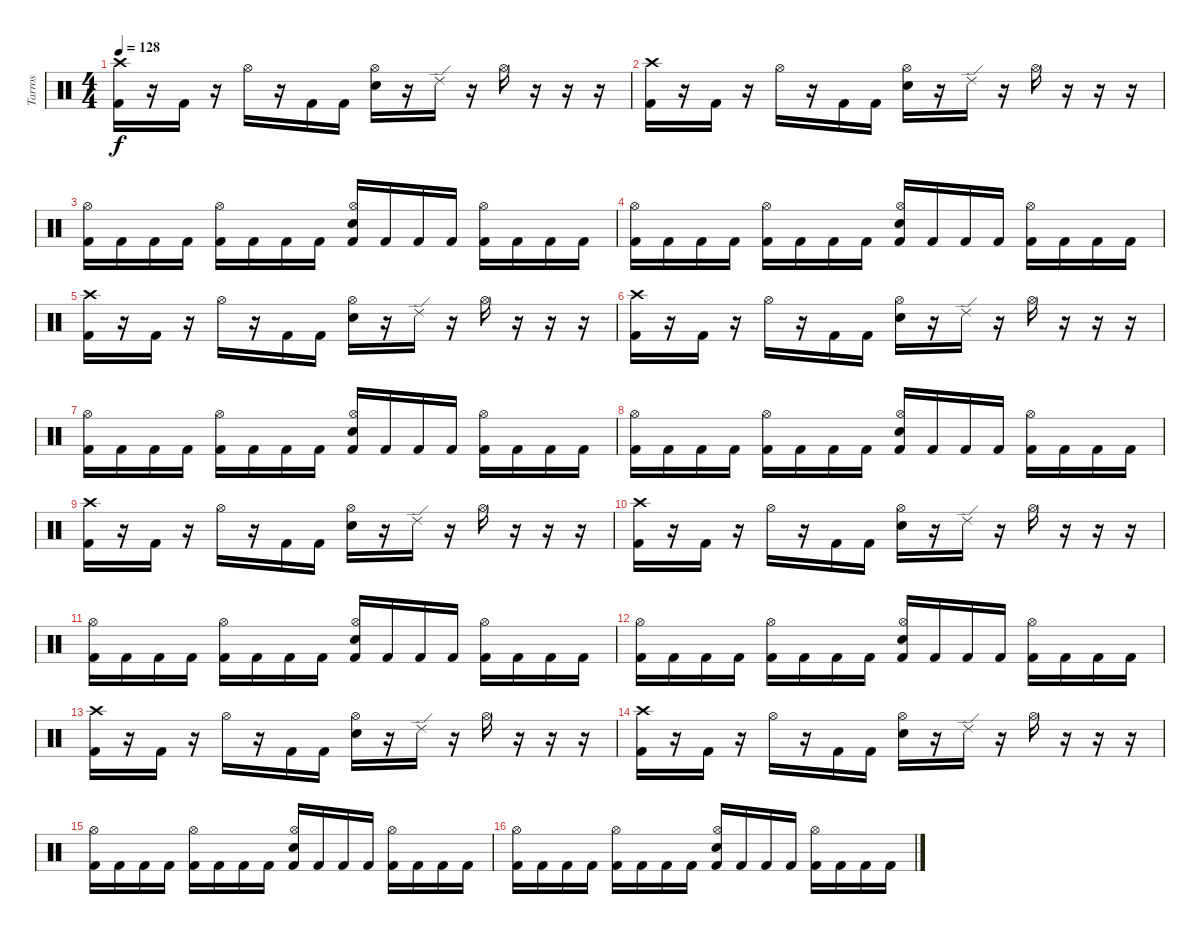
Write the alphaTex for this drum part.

\track ("Tarros" "Tarros") {instrument percussion}
\staff {score}
\articulation defaults
\ts (4 4)
\tempo 128
\clef neutral
\ks c
("Crash high (hit)" "Kick (hit) 2").16{dy f} r.16 "Kick (hit) 2".16 r.16 "Hi-Hat (open)".16 r.16 "Kick (hit) 2".16 "Kick (hit) 2".16 ("Hi-Hat (open)" "Electric Snare (hit)").16 r.16 "Ride (edge) 2".16 r.16 "Hi-Hat (open)".16 r.16 r.16 r.16 |
("Crash high (hit)" "Kick (hit) 2").16 r.16 "Kick (hit) 2".16 r.16 "Hi-Hat (open)".16 r.16 "Kick (hit) 2".16 "Kick (hit) 2".16 ("Hi-Hat (open)" "Electric Snare (hit)").16 r.16 "Ride (edge) 2".16 r.16 "Hi-Hat (open)".16 r.16 r.16 r.16 |
("Hi-Hat (open)" "Kick (hit) 2").16 "Kick (hit) 2".16 "Kick (hit) 2".16 "Kick (hit) 2".16 ("Hi-Hat (open)" "Kick (hit) 2").16 "Kick (hit) 2".16 "Kick (hit) 2".16 "Kick (hit) 2".16 ("Hi-Hat (open)" "Electric Snare (hit)" "Kick (hit) 2").16 "Kick (hit) 2".16 "Kick (hit) 2".16 "Kick (hit) 2".16 ("Hi-Hat (open)" "Kick (hit) 2").16 "Kick (hit) 2".16 "Kick (hit) 2".16 "Kick (hit) 2".16 |
("Hi-Hat (open)" "Kick (hit) 2").16 "Kick (hit) 2".16 "Kick (hit) 2".16 "Kick (hit) 2".16 ("Hi-Hat (open)" "Kick (hit) 2").16 "Kick (hit) 2".16 "Kick (hit) 2".16 "Kick (hit) 2".16 ("Hi-Hat (open)" "Electric Snare (hit)" "Kick (hit) 2").16 "Kick (hit) 2".16 "Kick (hit) 2".16 "Kick (hit) 2".16 ("Hi-Hat (open)" "Kick (hit) 2").16 "Kick (hit) 2".16 "Kick (hit) 2".16 "Kick (hit) 2".16 |
("Crash high (hit)" "Kick (hit) 2").16 r.16 "Kick (hit) 2".16 r.16 "Hi-Hat (open)".16 r.16 "Kick (hit) 2".16 "Kick (hit) 2".16 ("Hi-Hat (open)" "Electric Snare (hit)").16 r.16 "Ride (edge) 2".16 r.16 "Hi-Hat (open)".16 r.16 r.16 r.16 |
("Crash high (hit)" "Kick (hit) 2").16 r.16 "Kick (hit) 2".16 r.16 "Hi-Hat (open)".16 r.16 "Kick (hit) 2".16 "Kick (hit) 2".16 ("Hi-Hat (open)" "Electric Snare (hit)").16 r.16 "Ride (edge) 2".16 r.16 "Hi-Hat (open)".16 r.16 r.16 r.16 |
("Hi-Hat (open)" "Kick (hit) 2").16 "Kick (hit) 2".16 "Kick (hit) 2".16 "Kick (hit) 2".16 ("Hi-Hat (open)" "Kick (hit) 2").16 "Kick (hit) 2".16 "Kick (hit) 2".16 "Kick (hit) 2".16 ("Hi-Hat (open)" "Electric Snare (hit)" "Kick (hit) 2").16 "Kick (hit) 2".16 "Kick (hit) 2".16 "Kick (hit) 2".16 ("Hi-Hat (open)" "Kick (hit) 2").16 "Kick (hit) 2".16 "Kick (hit) 2".16 "Kick (hit) 2".16 |
("Hi-Hat (open)" "Kick (hit) 2").16 "Kick (hit) 2".16 "Kick (hit) 2".16 "Kick (hit) 2".16 ("Hi-Hat (open)" "Kick (hit) 2").16 "Kick (hit) 2".16 "Kick (hit) 2".16 "Kick (hit) 2".16 ("Hi-Hat (open)" "Electric Snare (hit)" "Kick (hit) 2").16 "Kick (hit) 2".16 "Kick (hit) 2".16 "Kick (hit) 2".16 ("Hi-Hat (open)" "Kick (hit) 2").16 "Kick (hit) 2".16 "Kick (hit) 2".16 "Kick (hit) 2".16 |
("Crash high (hit)" "Kick (hit) 2").16 r.16 "Kick (hit) 2".16 r.16 "Hi-Hat (open)".16 r.16 "Kick (hit) 2".16 "Kick (hit) 2".16 ("Hi-Hat (open)" "Electric Snare (hit)").16 r.16 "Ride (edge) 2".16 r.16 "Hi-Hat (open)".16 r.16 r.16 r.16 |
("Crash high (hit)" "Kick (hit) 2").16 r.16 "Kick (hit) 2".16 r.16 "Hi-Hat (open)".16 r.16 "Kick (hit) 2".16 "Kick (hit) 2".16 ("Hi-Hat (open)" "Electric Snare (hit)").16 r.16 "Ride (edge) 2".16 r.16 "Hi-Hat (open)".16 r.16 r.16 r.16 |
("Hi-Hat (open)" "Kick (hit) 2").16 "Kick (hit) 2".16 "Kick (hit) 2".16 "Kick (hit) 2".16 ("Hi-Hat (open)" "Kick (hit) 2").16 "Kick (hit) 2".16 "Kick (hit) 2".16 "Kick (hit) 2".16 ("Hi-Hat (open)" "Electric Snare (hit)" "Kick (hit) 2").16 "Kick (hit) 2".16 "Kick (hit) 2".16 "Kick (hit) 2".16 ("Hi-Hat (open)" "Kick (hit) 2").16 "Kick (hit) 2".16 "Kick (hit) 2".16 "Kick (hit) 2".16 |
("Hi-Hat (open)" "Kick (hit) 2").16 "Kick (hit) 2".16 "Kick (hit) 2".16 "Kick (hit) 2".16 ("Hi-Hat (open)" "Kick (hit) 2").16 "Kick (hit) 2".16 "Kick (hit) 2".16 "Kick (hit) 2".16 ("Hi-Hat (open)" "Electric Snare (hit)" "Kick (hit) 2").16 "Kick (hit) 2".16 "Kick (hit) 2".16 "Kick (hit) 2".16 ("Hi-Hat (open)" "Kick (hit) 2").16 "Kick (hit) 2".16 "Kick (hit) 2".16 "Kick (hit) 2".16 |
("Crash high (hit)" "Kick (hit) 2").16 r.16 "Kick (hit) 2".16 r.16 "Hi-Hat (open)".16 r.16 "Kick (hit) 2".16 "Kick (hit) 2".16 ("Hi-Hat (open)" "Electric Snare (hit)").16 r.16 "Ride (edge) 2".16 r.16 "Hi-Hat (open)".16 r.16 r.16 r.16 |
("Crash high (hit)" "Kick (hit) 2").16 r.16 "Kick (hit) 2".16 r.16 "Hi-Hat (open)".16 r.16 "Kick (hit) 2".16 "Kick (hit) 2".16 ("Hi-Hat (open)" "Electric Snare (hit)").16 r.16 "Ride (edge) 2".16 r.16 "Hi-Hat (open)".16 r.16 r.16 r.16 |
("Hi-Hat (open)" "Kick (hit) 2").16 "Kick (hit) 2".16 "Kick (hit) 2".16 "Kick (hit) 2".16 ("Hi-Hat (open)" "Kick (hit) 2").16 "Kick (hit) 2".16 "Kick (hit) 2".16 "Kick (hit) 2".16 ("Hi-Hat (open)" "Electric Snare (hit)" "Kick (hit) 2").16 "Kick (hit) 2".16 "Kick (hit) 2".16 "Kick (hit) 2".16 ("Hi-Hat (open)" "Kick (hit) 2").16 "Kick (hit) 2".16 "Kick (hit) 2".16 "Kick (hit) 2".16 |
("Hi-Hat (open)" "Kick (hit) 2").16 "Kick (hit) 2".16 "Kick (hit) 2".16 "Kick (hit) 2".16 ("Hi-Hat (open)" "Kick (hit) 2").16 "Kick (hit) 2".16 "Kick (hit) 2".16 "Kick (hit) 2".16 ("Hi-Hat (open)" "Electric Snare (hit)" "Kick (hit) 2").16 "Kick (hit) 2".16 "Kick (hit) 2".16 "Kick (hit) 2".16 ("Hi-Hat (open)" "Kick (hit) 2").16 "Kick (hit) 2".16 "Kick (hit) 2".16 "Kick (hit) 2".16
